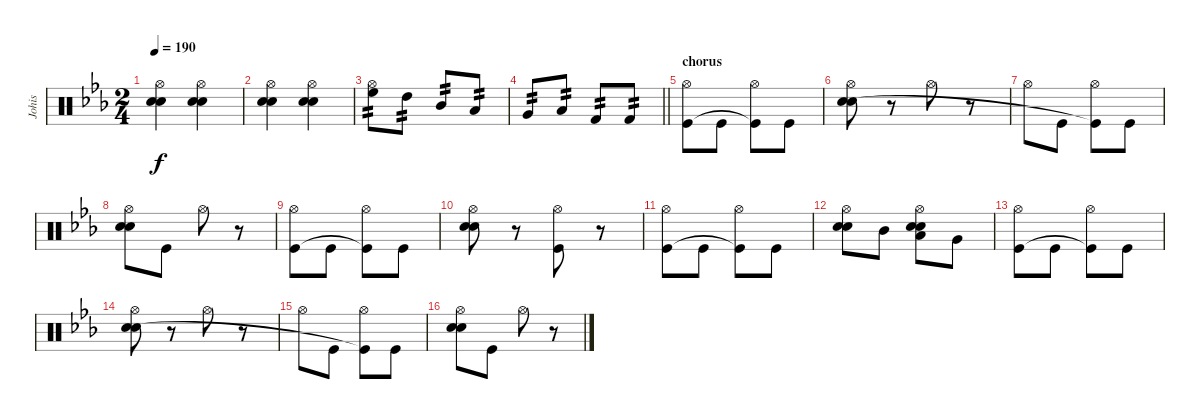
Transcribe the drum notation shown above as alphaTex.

\track ("Johis" "Johis") {instrument percussion}
\staff {score}
\articulation defaults
\ts (2 4)
\tempo 190
\clef neutral
\ks eb
("Hi-Hat (open)" "Electric Snare (hit)" "Snare (hit) 2").4{dy f} ("Hi-Hat (open)" "Electric Snare (hit)" "Snare (hit) 2").4 |
("Hi-Hat (open)" "Electric Snare (hit)" "Snare (hit) 2").4 ("Hi-Hat (open)" "Electric Snare (hit)" "Snare (hit) 2").4 |
("Hi-Hat (open)" "High Floor Tom (hit)").8{tp 2} "High Tom (hit)".8{tp 2} "Mid Tom (hit)".8{tp 2} "Low Tom (hit)".8{tp 2} |
\barLineRight lightlight "Very Low Tom (hit)".8{tp 2} "Low Floor Tom (hit)".8{tp 2} "Kick (hit) 2".8{tp 2} "Kick (hit) 2".8{tp 2}
|
\section ("" "chorus")
("Hi-Hat (open)" "Kick (hit)").8 "Kick (hit)".8 ("Hi-Hat (open)" "Kick (hit)"{t}).8 "Kick (hit)".8 |
("Hi-Hat (open)" "Snare (hit) 2" "Electric Snare (hit)").8 r.8 "Hi-Hat (open)".8 r.8 |
"Hi-Hat (open)".8 "Kick (hit)".8 ("Hi-Hat (open)" "Kick (hit)"{t}).8 "Kick (hit)".8 |
("Hi-Hat (open)" "Snare (hit) 2" "Electric Snare (hit)").8 "Kick (hit)".8 "Hi-Hat (open)".8 r.8 |
("Hi-Hat (open)" "Kick (hit)").8 "Kick (hit)".8 ("Hi-Hat (open)" "Kick (hit)"{t}).8 "Kick (hit)".8 |
("Hi-Hat (open)" "Snare (hit) 2" "Electric Snare (hit)").8 r.8 ("Hi-Hat (open)" "Kick (hit)").8 r.8 |
("Hi-Hat (open)" "Kick (hit)").8 "Kick (hit)".8 ("Hi-Hat (open)" "Kick (hit)"{t}).8 "Kick (hit)".8 |
("Hi-Hat (open)" "Electric Snare (hit)" "Snare (hit) 2").8 "Mid Tom (hit)".8 ("Hi-Hat (open)" "Snare (hit) 2" "Low Tom (hit)" "Electric Snare (hit)").8 "Very Low Tom (hit)".8 |
("Hi-Hat (open)" "Kick (hit)").8 "Kick (hit)".8 ("Hi-Hat (open)" "Kick (hit)"{t}).8 "Kick (hit)".8 |
("Hi-Hat (open)" "Snare (hit) 2" "Electric Snare (hit)").8 r.8 "Hi-Hat (open)".8 r.8 |
"Hi-Hat (open)".8 "Kick (hit)".8 ("Hi-Hat (open)" "Kick (hit)"{t}).8 "Kick (hit)".8 |
("Hi-Hat (open)" "Snare (hit) 2" "Electric Snare (hit)").8 "Kick (hit)".8 "Hi-Hat (open)".8 r.8
